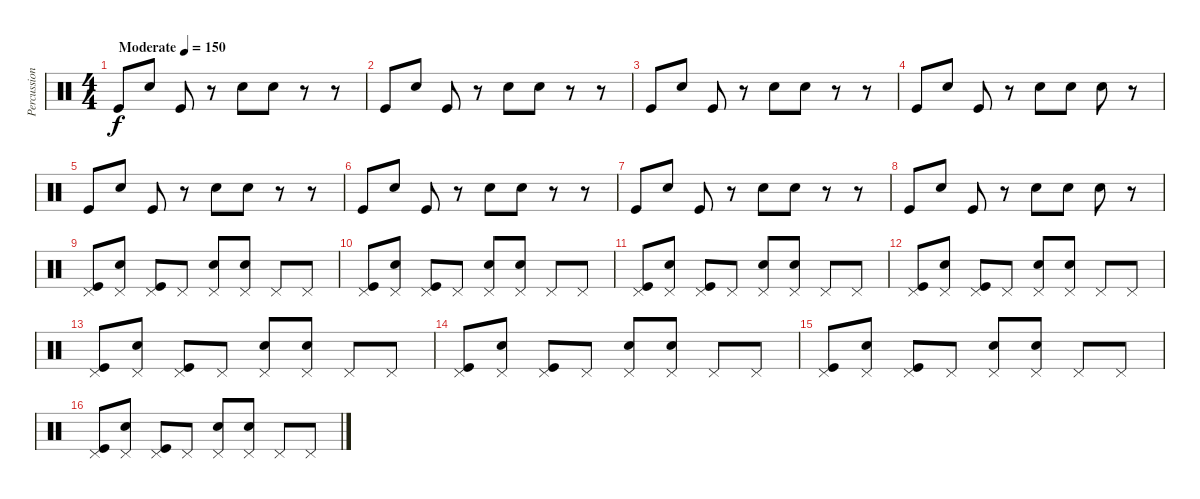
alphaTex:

\track ("Percussion" "Percussion") {instrument percussion}
\staff {score}
\articulation defaults
\ts (4 4)
\tempo (150 "Moderate")
\clef neutral
\ks c "Kick (hit)".8{dy f} "Electric Snare (hit)".8 "Kick (hit)".8
r.8 "Electric Snare (hit)".8 "Electric Snare (hit)".8 r.8 r.8 |
"Kick (hit)".8 "Electric Snare (hit)".8 "Kick (hit)".8 r.8 "Electric Snare (hit)".8 "Electric Snare (hit)".8 r.8 r.8 |
"Kick (hit)".8 "Electric Snare (hit)".8 "Kick (hit)".8 r.8 "Electric Snare (hit)".8 "Electric Snare (hit)".8 r.8 r.8 |
"Kick (hit)".8 "Electric Snare (hit)".8 "Kick (hit)".8 r.8 "Electric Snare (hit)".8 "Electric Snare (hit)".8 "Electric Snare (hit)".8 r.8 |
"Kick (hit)".8 "Electric Snare (hit)".8 "Kick (hit)".8 r.8 "Electric Snare (hit)".8 "Electric Snare (hit)".8 r.8 r.8 |
"Kick (hit)".8 "Electric Snare (hit)".8 "Kick (hit)".8 r.8 "Electric Snare (hit)".8 "Electric Snare (hit)".8 r.8 r.8 |
"Kick (hit)".8 "Electric Snare (hit)".8 "Kick (hit)".8 r.8 "Electric Snare (hit)".8 "Electric Snare (hit)".8 r.8 r.8 |
"Kick (hit)".8 "Electric Snare (hit)".8 "Kick (hit)".8 r.8 "Electric Snare (hit)".8 "Electric Snare (hit)".8 "Electric Snare (hit)".8 r.8 |
("Kick (hit)" "Pedal Hi-Hat (hit)").8 ("Electric Snare (hit)" "Pedal Hi-Hat (hit)").8 ("Kick (hit)" "Pedal Hi-Hat (hit)").8 "Pedal Hi-Hat (hit)".8 ("Electric Snare (hit)" "Pedal Hi-Hat (hit)").8 ("Electric Snare (hit)" "Pedal Hi-Hat (hit)").8 "Pedal Hi-Hat (hit)".8 "Pedal Hi-Hat (hit)".8 |
("Kick (hit)" "Pedal Hi-Hat (hit)").8 ("Electric Snare (hit)" "Pedal Hi-Hat (hit)").8 ("Kick (hit)" "Pedal Hi-Hat (hit)").8 "Pedal Hi-Hat (hit)".8 ("Electric Snare (hit)" "Pedal Hi-Hat (hit)").8 ("Electric Snare (hit)" "Pedal Hi-Hat (hit)").8 "Pedal Hi-Hat (hit)".8 "Pedal Hi-Hat (hit)".8 |
("Kick (hit)" "Pedal Hi-Hat (hit)").8 ("Electric Snare (hit)" "Pedal Hi-Hat (hit)").8 ("Kick (hit)" "Pedal Hi-Hat (hit)").8 "Pedal Hi-Hat (hit)".8 ("Electric Snare (hit)" "Pedal Hi-Hat (hit)").8 ("Electric Snare (hit)" "Pedal Hi-Hat (hit)").8 "Pedal Hi-Hat (hit)".8 "Pedal Hi-Hat (hit)".8 |
("Kick (hit)" "Pedal Hi-Hat (hit)").8 ("Electric Snare (hit)" "Pedal Hi-Hat (hit)").8 ("Kick (hit)" "Pedal Hi-Hat (hit)").8 "Pedal Hi-Hat (hit)".8 ("Electric Snare (hit)" "Pedal Hi-Hat (hit)").8 ("Electric Snare (hit)" "Pedal Hi-Hat (hit)").8 "Pedal Hi-Hat (hit)".8 "Pedal Hi-Hat (hit)".8 |
("Kick (hit)" "Pedal Hi-Hat (hit)").8 ("Electric Snare (hit)" "Pedal Hi-Hat (hit)").8 ("Kick (hit)" "Pedal Hi-Hat (hit)").8 "Pedal Hi-Hat (hit)".8 ("Electric Snare (hit)" "Pedal Hi-Hat (hit)").8 ("Electric Snare (hit)" "Pedal Hi-Hat (hit)").8 "Pedal Hi-Hat (hit)".8 "Pedal Hi-Hat (hit)".8 |
("Kick (hit)" "Pedal Hi-Hat (hit)").8 ("Electric Snare (hit)" "Pedal Hi-Hat (hit)").8 ("Kick (hit)" "Pedal Hi-Hat (hit)").8 "Pedal Hi-Hat (hit)".8 ("Electric Snare (hit)" "Pedal Hi-Hat (hit)").8 ("Electric Snare (hit)" "Pedal Hi-Hat (hit)").8 "Pedal Hi-Hat (hit)".8 "Pedal Hi-Hat (hit)".8 |
("Kick (hit)" "Pedal Hi-Hat (hit)").8 ("Electric Snare (hit)" "Pedal Hi-Hat (hit)").8 ("Kick (hit)" "Pedal Hi-Hat (hit)").8 "Pedal Hi-Hat (hit)".8 ("Electric Snare (hit)" "Pedal Hi-Hat (hit)").8 ("Electric Snare (hit)" "Pedal Hi-Hat (hit)").8 "Pedal Hi-Hat (hit)".8 "Pedal Hi-Hat (hit)".8 |
("Kick (hit)" "Pedal Hi-Hat (hit)").8 ("Electric Snare (hit)" "Pedal Hi-Hat (hit)").8 ("Kick (hit)" "Pedal Hi-Hat (hit)").8 "Pedal Hi-Hat (hit)".8 ("Electric Snare (hit)" "Pedal Hi-Hat (hit)").8 ("Electric Snare (hit)" "Pedal Hi-Hat (hit)").8 "Pedal Hi-Hat (hit)".8 "Pedal Hi-Hat (hit)".8
